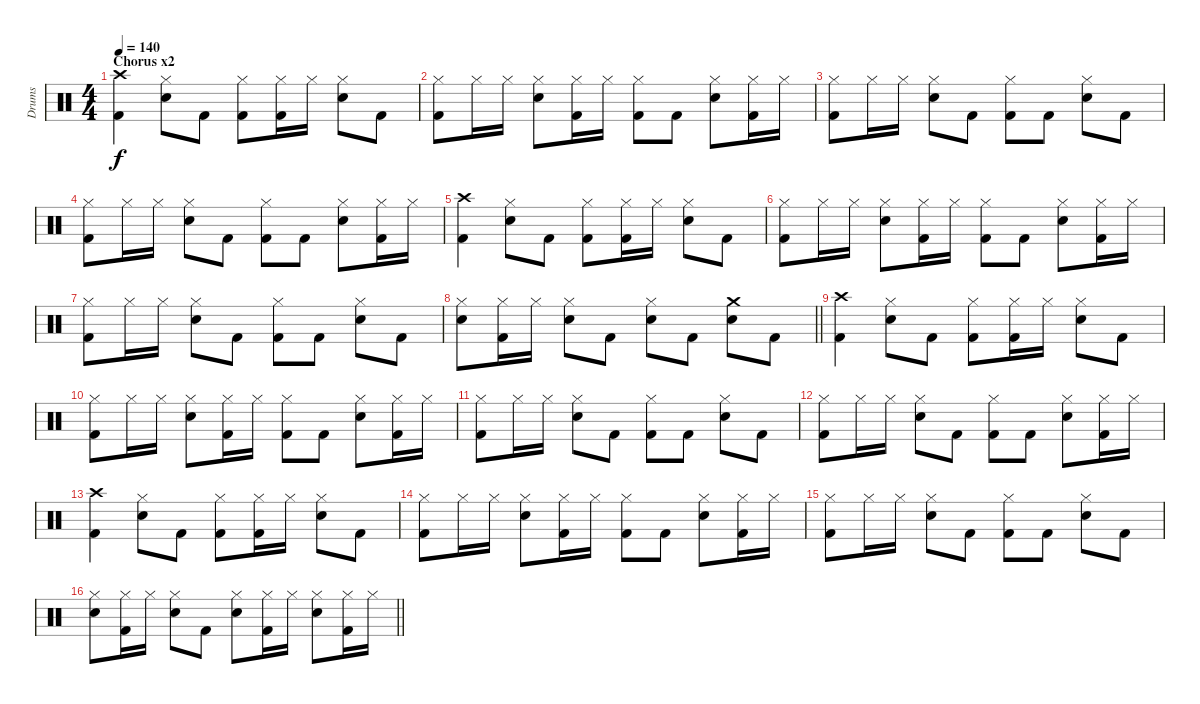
\track ("Drums" "Drums") {instrument percussion}
\staff {score}
\articulation defaults
\ts (4 4)
\section ("" "Chorus x2")
\tempo 140
\clef neutral
\ks c
("Crash high (hit)" "Kick (hit) 2").4{dy f} ("Hi-Hat (closed)" "Electric Snare (hit)").8 "Kick (hit) 2".8 ("Hi-Hat (closed)" "Kick (hit) 2").8 ("Hi-Hat (closed)" "Kick (hit) 2").16 "Hi-Hat (closed)".16 ("Hi-Hat (closed)" "Electric Snare (hit)").8 "Kick (hit) 2".8 |
("Hi-Hat (closed)" "Kick (hit) 2").8 "Hi-Hat (closed)".16 "Hi-Hat (closed)".16 ("Hi-Hat (closed)" "Electric Snare (hit)").8 ("Hi-Hat (closed)" "Kick (hit) 2").16 "Hi-Hat (closed)".16 ("Hi-Hat (closed)" "Kick (hit) 2").8 "Kick (hit) 2".8 ("Hi-Hat (closed)" "Electric Snare (hit)").8 ("Hi-Hat (closed)" "Kick (hit) 2").16 "Hi-Hat (closed)".16 |
("Hi-Hat (closed)" "Kick (hit) 2").8 "Hi-Hat (closed)".16 "Hi-Hat (closed)".16 ("Hi-Hat (closed)" "Electric Snare (hit)").8 "Kick (hit) 2".8 ("Hi-Hat (closed)" "Kick (hit) 2").8 "Kick (hit) 2".8 ("Hi-Hat (closed)" "Electric Snare (hit)").8 "Kick (hit) 2".8 |
("Hi-Hat (closed)" "Kick (hit) 2").8 "Hi-Hat (closed)".16 "Hi-Hat (closed)".16 ("Hi-Hat (closed)" "Electric Snare (hit)").8 "Kick (hit) 2".8 ("Hi-Hat (closed)" "Kick (hit) 2").8 "Kick (hit) 2".8 ("Hi-Hat (closed)" "Electric Snare (hit)").8 ("Hi-Hat (closed)" "Kick (hit) 2").16 "Hi-Hat (closed)".16 |
("Crash high (hit)" "Kick (hit) 2").4 ("Hi-Hat (closed)" "Electric Snare (hit)").8 "Kick (hit) 2".8 ("Hi-Hat (closed)" "Kick (hit) 2").8 ("Hi-Hat (closed)" "Kick (hit) 2").16 "Hi-Hat (closed)".16 ("Hi-Hat (closed)" "Electric Snare (hit)").8 "Kick (hit) 2".8 |
("Hi-Hat (closed)" "Kick (hit) 2").8 "Hi-Hat (closed)".16 "Hi-Hat (closed)".16 ("Hi-Hat (closed)" "Electric Snare (hit)").8 ("Hi-Hat (closed)" "Kick (hit) 2").16 "Hi-Hat (closed)".16 ("Hi-Hat (closed)" "Kick (hit) 2").8 "Kick (hit) 2".8 ("Hi-Hat (closed)" "Electric Snare (hit)").8 ("Hi-Hat (closed)" "Kick (hit) 2").16 "Hi-Hat (closed)".16 |
("Hi-Hat (closed)" "Kick (hit) 2").8 "Hi-Hat (closed)".16 "Hi-Hat (closed)".16 ("Hi-Hat (closed)" "Electric Snare (hit)").8 "Kick (hit) 2".8 ("Hi-Hat (closed)" "Kick (hit) 2").8 "Kick (hit) 2".8 ("Hi-Hat (closed)" "Electric Snare (hit)").8 "Kick (hit) 2".8 |
\barLineRight lightlight
("Hi-Hat (closed)" "Electric Snare (hit)").8 ("Hi-Hat (closed)" "Kick (hit) 2").16 "Hi-Hat (closed)".16 ("Hi-Hat (closed)" "Electric Snare (hit)").8 "Kick (hit) 2".8 ("Hi-Hat (closed)" "Electric Snare (hit)").8 "Kick (hit) 2".8 ("Crash medium (hit)" "Electric Snare (hit)").8 "Kick (hit) 2".8 |
("Crash high (hit)" "Kick (hit) 2").4 ("Hi-Hat (closed)" "Electric Snare (hit)").8 "Kick (hit) 2".8 ("Hi-Hat (closed)" "Kick (hit) 2").8 ("Hi-Hat (closed)" "Kick (hit) 2").16 "Hi-Hat (closed)".16 ("Hi-Hat (closed)" "Electric Snare (hit)").8 "Kick (hit) 2".8 |
("Hi-Hat (closed)" "Kick (hit) 2").8 "Hi-Hat (closed)".16 "Hi-Hat (closed)".16 ("Hi-Hat (closed)" "Electric Snare (hit)").8 ("Hi-Hat (closed)" "Kick (hit) 2").16 "Hi-Hat (closed)".16 ("Hi-Hat (closed)" "Kick (hit) 2").8 "Kick (hit) 2".8 ("Hi-Hat (closed)" "Electric Snare (hit)").8 ("Hi-Hat (closed)" "Kick (hit) 2").16 "Hi-Hat (closed)".16 |
("Hi-Hat (closed)" "Kick (hit) 2").8 "Hi-Hat (closed)".16 "Hi-Hat (closed)".16 ("Hi-Hat (closed)" "Electric Snare (hit)").8 "Kick (hit) 2".8 ("Hi-Hat (closed)" "Kick (hit) 2").8 "Kick (hit) 2".8 ("Hi-Hat (closed)" "Electric Snare (hit)").8 "Kick (hit) 2".8 |
("Hi-Hat (closed)" "Kick (hit) 2").8 "Hi-Hat (closed)".16 "Hi-Hat (closed)".16 ("Hi-Hat (closed)" "Electric Snare (hit)").8 "Kick (hit) 2".8 ("Hi-Hat (closed)" "Kick (hit) 2").8 "Kick (hit) 2".8 ("Hi-Hat (closed)" "Electric Snare (hit)").8 ("Hi-Hat (closed)" "Kick (hit) 2").16 "Hi-Hat (closed)".16 |
("Crash high (hit)" "Kick (hit) 2").4 ("Hi-Hat (closed)" "Electric Snare (hit)").8 "Kick (hit) 2".8 ("Hi-Hat (closed)" "Kick (hit) 2").8 ("Hi-Hat (closed)" "Kick (hit) 2").16 "Hi-Hat (closed)".16 ("Hi-Hat (closed)" "Electric Snare (hit)").8 "Kick (hit) 2".8 |
("Hi-Hat (closed)" "Kick (hit) 2").8 "Hi-Hat (closed)".16 "Hi-Hat (closed)".16 ("Hi-Hat (closed)" "Electric Snare (hit)").8 ("Hi-Hat (closed)" "Kick (hit) 2").16 "Hi-Hat (closed)".16 ("Hi-Hat (closed)" "Kick (hit) 2").8 "Kick (hit) 2".8 ("Hi-Hat (closed)" "Electric Snare (hit)").8 ("Hi-Hat (closed)" "Kick (hit) 2").16 "Hi-Hat (closed)".16 |
("Hi-Hat (closed)" "Kick (hit) 2").8 "Hi-Hat (closed)".16 "Hi-Hat (closed)".16 ("Hi-Hat (closed)" "Electric Snare (hit)").8 "Kick (hit) 2".8 ("Hi-Hat (closed)" "Kick (hit) 2").8 "Kick (hit) 2".8 ("Hi-Hat (closed)" "Electric Snare (hit)").8 "Kick (hit) 2".8 |
\barLineRight lightlight
("Hi-Hat (closed)" "Electric Snare (hit)").8 ("Hi-Hat (closed)" "Kick (hit) 2").16 "Hi-Hat (closed)".16 ("Hi-Hat (closed)" "Electric Snare (hit)").8 "Kick (hit) 2".8 ("Hi-Hat (closed)" "Electric Snare (hit)").8 ("Hi-Hat (closed)" "Kick (hit) 2").16 "Hi-Hat (closed)".16 ("Hi-Hat (closed)" "Electric Snare (hit)").8 ("Hi-Hat (closed)" "Kick (hit) 2").16 "Hi-Hat (closed)".16
